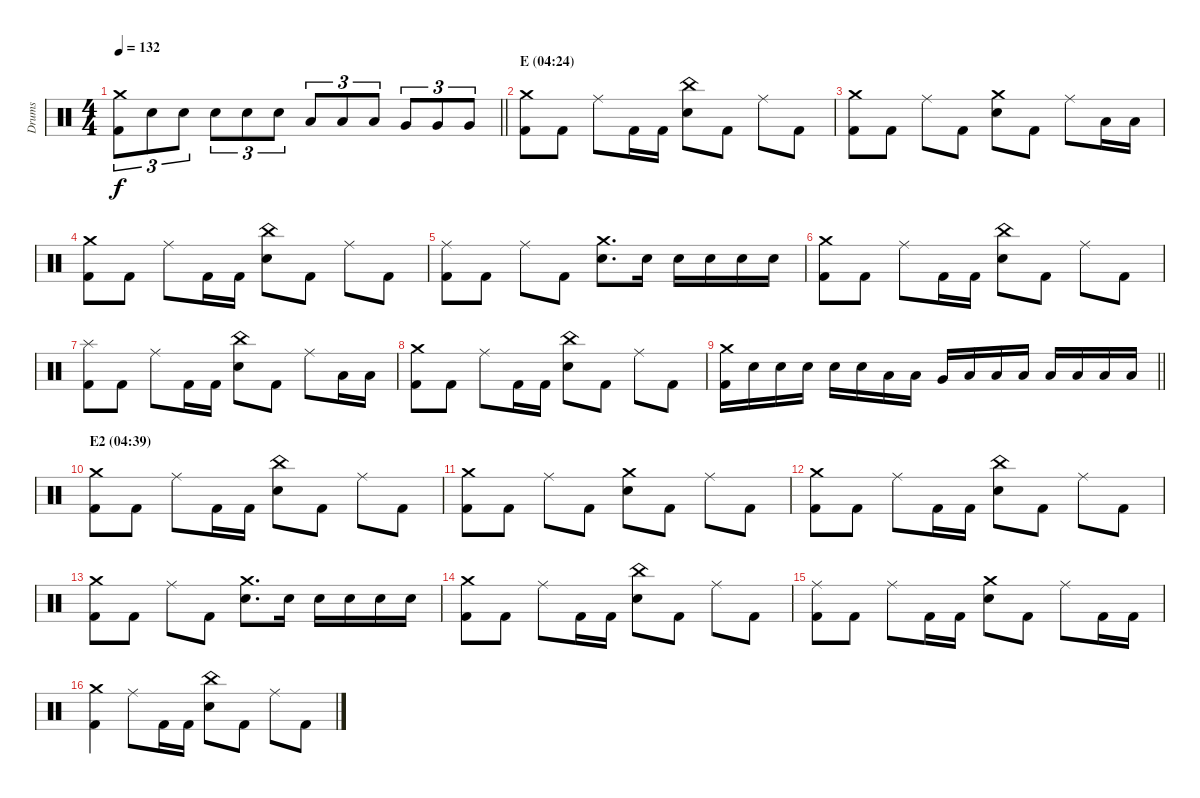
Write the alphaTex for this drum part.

\track ("Drums" "Drums") {instrument percussion}
\staff {score}
\articulation defaults
\ts (4 4)
\tempo 132
\clef neutral
\barLineRight lightlight
\ks c
("Crash medium (hit)" "Kick (hit) 2").8{tu (3 2) dy f} "Electric Snare (hit)".8{tu (3 2)} "Electric Snare (hit)".8{tu (3 2)} "Electric Snare (hit)".8{tu (3 2)} "Electric Snare (hit)".8{tu (3 2)} "Electric Snare (hit)".8{tu (3 2)} "Low Tom (hit)".8{tu (3 2)} "Low Tom (hit)".8{tu (3 2)} "Low Tom (hit)".8{tu (3 2)} "Very Low Tom (hit)".8{tu (3 2)} "Very Low Tom (hit)".8{tu (3 2)} "Very Low Tom (hit)".8{tu (3 2)} |
\section ("" "E (04:24)")
("Crash medium (hit)" "Kick (hit) 2").8 "Kick (hit) 2".8 "Ride (middle)".8 "Kick (hit) 2".16 "Kick (hit) 2".16 ("China (hit)" "Electric Snare (hit)").8 "Kick (hit) 2".8 "Ride (middle)".8 "Kick (hit) 2".8 |
("Crash medium (hit)" "Kick (hit) 2").8 "Kick (hit) 2".8 "Ride (middle)".8 "Kick (hit) 2".8 ("Crash medium (hit)" "Electric Snare (hit)").8 "Kick (hit) 2".8 "Ride (middle)".8 "Low Tom (hit)".16 "Low Tom (hit)".16 |
("Crash medium (hit)" "Kick (hit) 2").8 "Kick (hit) 2".8 "Ride (middle)".8 "Kick (hit) 2".16 "Kick (hit) 2".16 ("China (hit)" "Electric Snare (hit)").8 "Kick (hit) 2".8 "Ride (middle)".8 "Kick (hit) 2".8 |
("Ride (middle)" "Kick (hit) 2").8 "Kick (hit) 2".8 "Ride (middle)".8 "Kick (hit) 2".8 ("Crash medium (hit)" "Electric Snare (hit)").8{d} "Electric Snare (hit)".16 "Electric Snare (hit)".16 "Electric Snare (hit)".16 "Electric Snare (hit)".16 "Electric Snare (hit)".16 |
("Crash medium (hit)" "Kick (hit) 2").8 "Kick (hit) 2".8 "Ride (middle)".8 "Kick (hit) 2".16 "Kick (hit) 2".16 ("China (hit)" "Electric Snare (hit)").8 "Kick (hit) 2".8 "Ride (middle)".8 "Kick (hit) 2".8 |
("Splash (hit)" "Kick (hit) 2").8 "Kick (hit) 2".8 "Ride (middle)".8 "Kick (hit) 2".16 "Kick (hit) 2".16 ("China (hit)" "Electric Snare (hit)").8 "Kick (hit) 2".8 "Ride (middle)".8 "Low Tom (hit)".16 "Low Tom (hit)".16 |
("Crash medium (hit)" "Kick (hit) 2").8 "Kick (hit) 2".8 "Ride (middle)".8 "Kick (hit) 2".16 "Kick (hit) 2".16 ("China (hit)" "Electric Snare (hit)").8 "Kick (hit) 2".8 "Ride (middle)".8 "Kick (hit) 2".8 |
\barLineRight lightlight
("Crash medium (hit)" "Kick (hit) 2").16 "Electric Snare (hit)".16 "Electric Snare (hit)".16 "Electric Snare (hit)".16 "Electric Snare (hit)".16 "Electric Snare (hit)".16 "Low Tom (hit)".16 "Low Tom (hit)".16 "Very Low Tom (hit)".16 "Low Floor Tom (hit)".16 "Low Floor Tom (hit)".16 "Low Floor Tom (hit)".16 "Low Floor Tom (hit)".16 "Low Floor Tom (hit)".16 "Low Floor Tom (hit)".16 "Low Floor Tom (hit)".16 |
\section ("" "E2 (04:39)")
("Crash medium (hit)" "Kick (hit) 2").8 "Kick (hit) 2".8 "Ride (middle)".8 "Kick (hit) 2".16 "Kick (hit) 2".16 ("China (hit)" "Electric Snare (hit)").8 "Kick (hit) 2".8 "Ride (middle)".8 "Kick (hit) 2".8 |
("Crash medium (hit)" "Kick (hit) 2").8 "Kick (hit) 2".8 "Ride (middle)".8 "Kick (hit) 2".8 ("Crash medium (hit)" "Electric Snare (hit)").8 "Kick (hit) 2".8 "Ride (middle)".8 "Kick (hit) 2".8 |
("Crash medium (hit)" "Kick (hit) 2").8 "Kick (hit) 2".8 "Ride (middle)".8 "Kick (hit) 2".16 "Kick (hit) 2".16 ("China (hit)" "Electric Snare (hit)").8 "Kick (hit) 2".8 "Ride (middle)".8 "Kick (hit) 2".8 |
("Crash medium (hit)" "Kick (hit) 2").8 "Kick (hit) 2".8 "Ride (middle)".8 "Kick (hit) 2".8 ("Crash medium (hit)" "Electric Snare (hit)").8{d} "Electric Snare (hit)".16 "Electric Snare (hit)".16 "Electric Snare (hit)".16 "Electric Snare (hit)".16 "Electric Snare (hit)".16 |
("Crash medium (hit)" "Kick (hit) 2").8 "Kick (hit) 2".8 "Ride (middle)".8 "Kick (hit) 2".16 "Kick (hit) 2".16 ("China (hit)" "Electric Snare (hit)").8 "Kick (hit) 2".8 "Ride (middle)".8 "Kick (hit) 2".8 |
("Ride (middle)" "Kick (hit) 2").8 "Kick (hit) 2".8 "Ride (middle)".8 "Kick (hit) 2".16 "Kick (hit) 2".16 ("Crash medium (hit)" "Electric Snare (hit)").8 "Kick (hit) 2".8 "Ride (middle)".8 "Kick (hit) 2".16 "Kick (hit) 2".16 |
("Crash medium (hit)" "Kick (hit) 2").4 "Ride (middle)".8 "Kick (hit) 2".16 "Kick (hit) 2".16 ("China (hit)" "Electric Snare (hit)").8 "Kick (hit) 2".8 "Ride (middle)".8 "Kick (hit) 2".8
